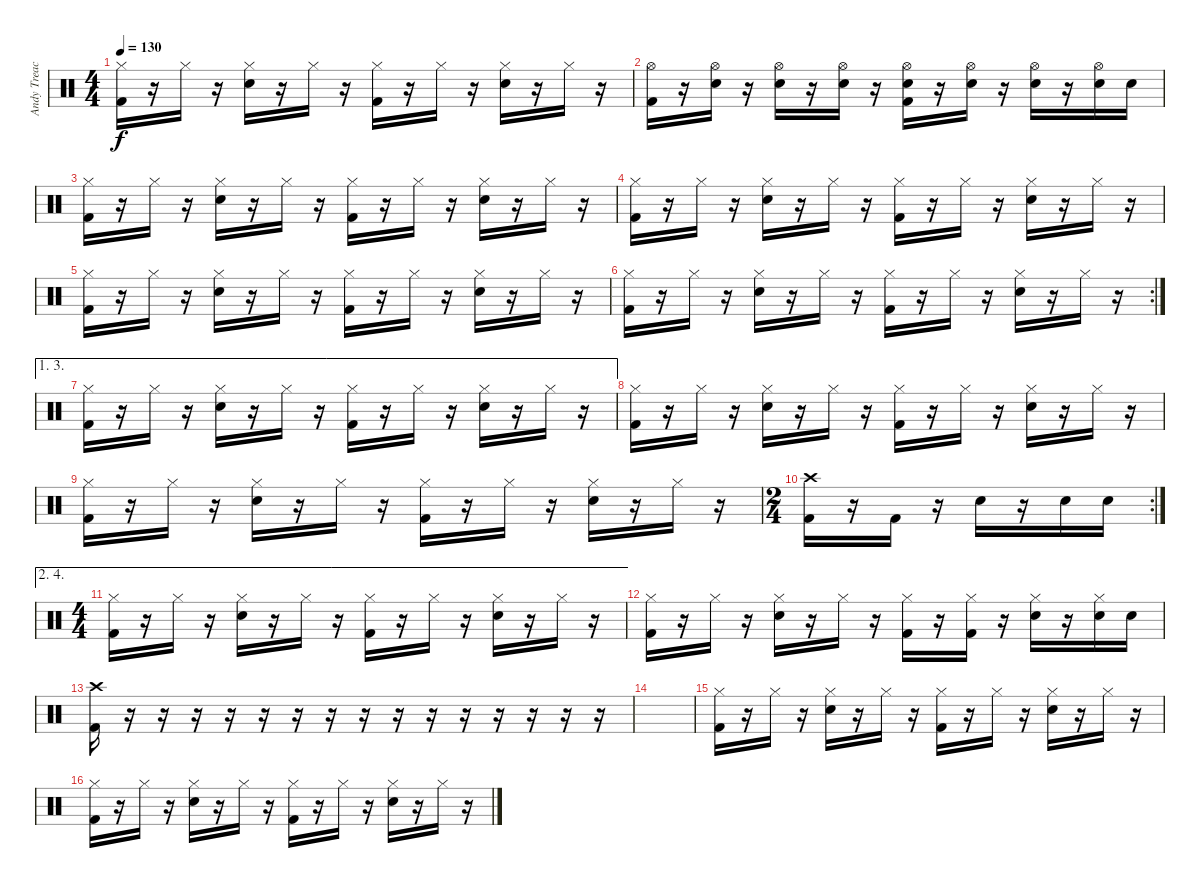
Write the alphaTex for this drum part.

\track ("Andy Treacey" "Andy Treac") {instrument percussion}
\staff {score}
\articulation defaults
\ts (4 4)
\tempo 130
\clef neutral
\ks c
("Hi-Hat (closed)" "Kick (hit) 2").16{dy f} r.16 "Hi-Hat (closed)".16 r.16 ("Hi-Hat (closed)" "Snare (hit) 2").16 r.16 "Hi-Hat (closed)".16 r.16 ("Hi-Hat (closed)" "Kick (hit) 2").16 r.16 "Hi-Hat (closed)".16 r.16 ("Hi-Hat (closed)" "Snare (hit) 2").16 r.16 "Hi-Hat (closed)".16 r.16 |
("Hi-Hat (open)" "Kick (hit) 2").16 r.16 ("Hi-Hat (open)" "Snare (hit) 2").16 r.16 ("Hi-Hat (open)" "Snare (hit) 2").16 r.16 ("Hi-Hat (open)" "Snare (hit) 2").16 r.16 ("Hi-Hat (open)" "Snare (hit) 2" "Kick (hit) 2").16 r.16 ("Hi-Hat (open)" "Snare (hit) 2").16 r.16 ("Hi-Hat (open)" "Snare (hit) 2").16 r.16 ("Hi-Hat (open)" "Snare (hit) 2").16 "Snare (hit) 2".16 |
("Hi-Hat (closed)" "Kick (hit) 2").16 r.16 "Hi-Hat (closed)".16 r.16 ("Hi-Hat (closed)" "Snare (hit) 2").16 r.16 "Hi-Hat (closed)".16 r.16 ("Hi-Hat (closed)" "Kick (hit) 2").16 r.16 "Hi-Hat (closed)".16 r.16 ("Hi-Hat (closed)" "Snare (hit) 2").16 r.16 "Hi-Hat (closed)".16 r.16 |
("Hi-Hat (closed)" "Kick (hit) 2").16 r.16 "Hi-Hat (closed)".16 r.16 ("Hi-Hat (closed)" "Snare (hit) 2").16 r.16 "Hi-Hat (closed)".16 r.16 ("Hi-Hat (closed)" "Kick (hit) 2").16 r.16 "Hi-Hat (closed)".16 r.16 ("Hi-Hat (closed)" "Snare (hit) 2").16 r.16 "Hi-Hat (closed)".16 r.16 |
("Hi-Hat (closed)" "Kick (hit) 2").16 r.16 "Hi-Hat (closed)".16 r.16 ("Hi-Hat (closed)" "Snare (hit) 2").16 r.16 "Hi-Hat (closed)".16 r.16 ("Hi-Hat (closed)" "Kick (hit) 2").16 r.16 "Hi-Hat (closed)".16 r.16 ("Hi-Hat (closed)" "Snare (hit) 2").16 r.16 "Hi-Hat (closed)".16 r.16 |
\rc 2
("Hi-Hat (closed)" "Kick (hit) 2").16 r.16 "Hi-Hat (closed)".16 r.16 ("Hi-Hat (closed)" "Snare (hit) 2").16 r.16 "Hi-Hat (closed)".16 r.16 ("Hi-Hat (closed)" "Kick (hit) 2").16 r.16 "Hi-Hat (closed)".16 r.16 ("Hi-Hat (closed)" "Snare (hit) 2").16 r.16 "Hi-Hat (closed)".16 r.16 |
\ae (1 3)
("Hi-Hat (closed)" "Kick (hit) 2").16 r.16 "Hi-Hat (closed)".16 r.16 ("Hi-Hat (closed)" "Snare (hit) 2").16 r.16 "Hi-Hat (closed)".16 r.16 ("Hi-Hat (closed)" "Kick (hit) 2").16 r.16 "Hi-Hat (closed)".16 r.16 ("Hi-Hat (closed)" "Snare (hit) 2").16 r.16 "Hi-Hat (closed)".16 r.16 |
("Hi-Hat (closed)" "Kick (hit) 2").16 r.16 "Hi-Hat (closed)".16 r.16 ("Hi-Hat (closed)" "Snare (hit) 2").16 r.16 "Hi-Hat (closed)".16 r.16 ("Hi-Hat (closed)" "Kick (hit) 2").16 r.16 "Hi-Hat (closed)".16 r.16 ("Hi-Hat (closed)" "Snare (hit) 2").16 r.16 "Hi-Hat (closed)".16 r.16 |
("Hi-Hat (closed)" "Kick (hit) 2").16 r.16 "Hi-Hat (closed)".16 r.16 ("Hi-Hat (closed)" "Snare (hit) 2").16 r.16 "Hi-Hat (closed)".16 r.16 ("Hi-Hat (closed)" "Kick (hit) 2").16 r.16 "Hi-Hat (closed)".16 r.16 ("Hi-Hat (closed)" "Snare (hit) 2").16 r.16 "Hi-Hat (closed)".16 r.16 |
\rc 2
\ts (2 4)
("Crash high (hit)" "Kick (hit) 2").16 r.16 "Kick (hit) 2".16 r.16 "Snare (hit) 2".16 r.16 "Snare (hit) 2".16 "Snare (hit) 2".16 |
\ae (2 4)
\ts (4 4)
("Hi-Hat (closed)" "Kick (hit) 2").16 r.16 "Hi-Hat (closed)".16 r.16 ("Hi-Hat (closed)" "Snare (hit) 2").16 r.16 "Hi-Hat (closed)".16 r.16 ("Hi-Hat (closed)" "Kick (hit) 2").16 r.16 "Hi-Hat (closed)".16 r.16 ("Hi-Hat (closed)" "Snare (hit) 2").16 r.16 "Hi-Hat (closed)".16 r.16 |
("Hi-Hat (closed)" "Kick (hit) 2").16 r.16 "Hi-Hat (closed)".16 r.16 ("Hi-Hat (closed)" "Snare (hit) 2").16 r.16 "Hi-Hat (closed)".16 r.16 ("Hi-Hat (closed)" "Kick (hit) 2").16 r.16 ("Hi-Hat (closed)" "Kick (hit) 2").16 r.16 ("Hi-Hat (closed)" "Snare (hit) 2").16 r.16 ("Hi-Hat (closed)" "Snare (hit) 2").16 "Snare (hit) 2".16 |
("Crash high (hit)" "Kick (hit) 2").16 r.16 r.16 r.16 r.16 r.16 r.16 r.16 r.16 r.16 r.16 r.16 r.16 r.16 r.16 r.16 |
|
("Hi-Hat (closed)" "Kick (hit) 2").16 r.16 "Hi-Hat (closed)".16 r.16 ("Hi-Hat (closed)" "Snare (hit) 2").16 r.16 "Hi-Hat (closed)".16 r.16 ("Hi-Hat (closed)" "Kick (hit) 2").16 r.16 "Hi-Hat (closed)".16 r.16 ("Hi-Hat (closed)" "Snare (hit) 2").16 r.16 "Hi-Hat (closed)".16 r.16 |
("Hi-Hat (closed)" "Kick (hit) 2").16 r.16 "Hi-Hat (closed)".16 r.16 ("Hi-Hat (closed)" "Snare (hit) 2").16 r.16 "Hi-Hat (closed)".16 r.16 ("Hi-Hat (closed)" "Kick (hit) 2").16 r.16 "Hi-Hat (closed)".16 r.16 ("Hi-Hat (closed)" "Snare (hit) 2").16 r.16 "Hi-Hat (closed)".16 r.16
